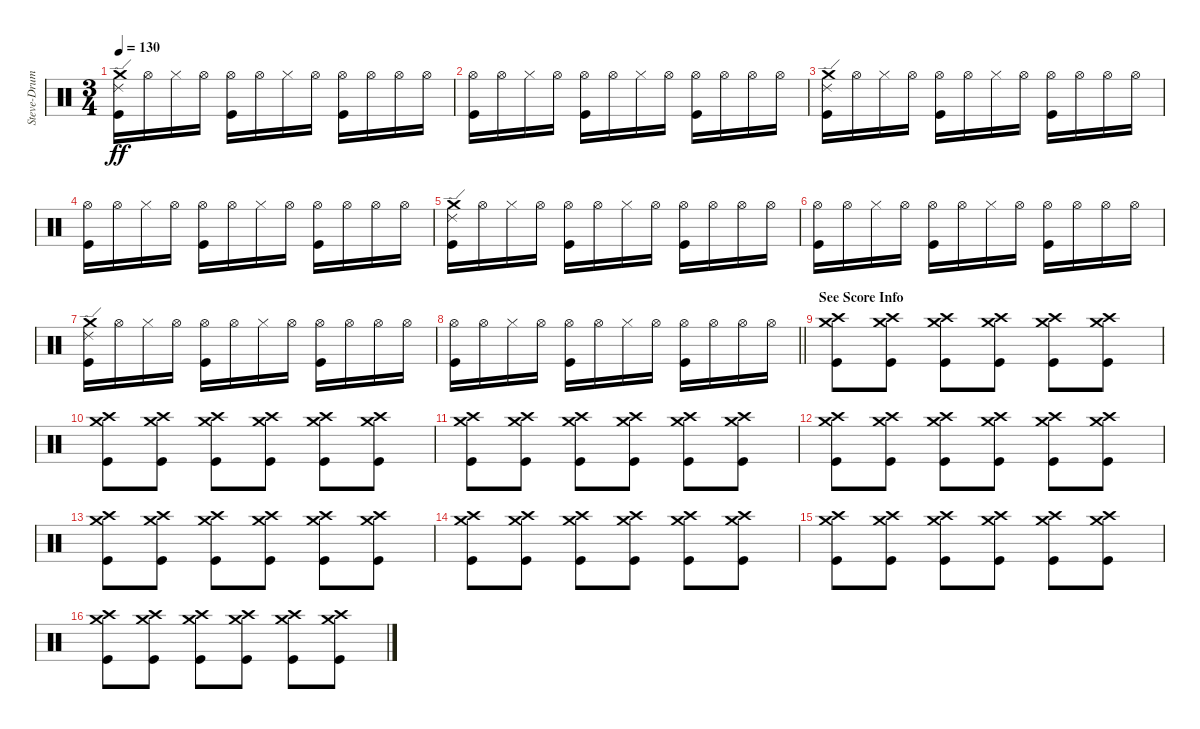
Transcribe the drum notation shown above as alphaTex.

\track ("Steve-Drums" "Steve-Drum") {instrument percussion}
\staff {score}
\articulation defaults
\ts (3 4)
\tempo 130
\clef neutral
\ks c
("Crash medium (hit)" "Ride (edge) 2" "Kick (hit)").16{dy ff} "Hi-Hat (open)".16 "Hi-Hat (closed)".16 "Hi-Hat (open)".16 ("Hi-Hat (open)" "Kick (hit)").16 "Hi-Hat (open)".16 "Hi-Hat (closed)".16 "Hi-Hat (open)".16 ("Hi-Hat (open)" "Kick (hit)").16 "Hi-Hat (open)".16 "Hi-Hat (open)".16 "Hi-Hat (open)".16 |
("Hi-Hat (open)" "Kick (hit)").16 "Hi-Hat (open)".16 "Hi-Hat (closed)".16 "Hi-Hat (open)".16 ("Hi-Hat (open)" "Kick (hit)").16 "Hi-Hat (open)".16 "Hi-Hat (closed)".16 "Hi-Hat (open)".16 ("Hi-Hat (open)" "Kick (hit)").16 "Hi-Hat (open)".16 "Hi-Hat (open)".16 "Hi-Hat (open)".16 |
("Crash medium (hit)" "Ride (edge) 2" "Kick (hit)").16 "Hi-Hat (open)".16 "Hi-Hat (closed)".16 "Hi-Hat (open)".16 ("Hi-Hat (open)" "Kick (hit)").16 "Hi-Hat (open)".16 "Hi-Hat (closed)".16 "Hi-Hat (open)".16 ("Hi-Hat (open)" "Kick (hit)").16 "Hi-Hat (open)".16 "Hi-Hat (open)".16 "Hi-Hat (open)".16 |
("Hi-Hat (open)" "Kick (hit)").16 "Hi-Hat (open)".16 "Hi-Hat (closed)".16 "Hi-Hat (open)".16 ("Hi-Hat (open)" "Kick (hit)").16 "Hi-Hat (open)".16 "Hi-Hat (closed)".16 "Hi-Hat (open)".16 ("Hi-Hat (open)" "Kick (hit)").16 "Hi-Hat (open)".16 "Hi-Hat (open)".16 "Hi-Hat (open)".16 |
("Crash medium (hit)" "Ride (edge) 2" "Kick (hit)").16 "Hi-Hat (open)".16 "Hi-Hat (closed)".16 "Hi-Hat (open)".16 ("Hi-Hat (open)" "Kick (hit)").16 "Hi-Hat (open)".16 "Hi-Hat (closed)".16 "Hi-Hat (open)".16 ("Hi-Hat (open)" "Kick (hit)").16 "Hi-Hat (open)".16 "Hi-Hat (open)".16 "Hi-Hat (open)".16 |
("Hi-Hat (open)" "Kick (hit)").16 "Hi-Hat (open)".16 "Hi-Hat (closed)".16 "Hi-Hat (open)".16 ("Hi-Hat (open)" "Kick (hit)").16 "Hi-Hat (open)".16 "Hi-Hat (closed)".16 "Hi-Hat (open)".16 ("Hi-Hat (open)" "Kick (hit)").16 "Hi-Hat (open)".16 "Hi-Hat (open)".16 "Hi-Hat (open)".16 |
("Crash medium (hit)" "Ride (edge) 2" "Kick (hit)").16 "Hi-Hat (open)".16 "Hi-Hat (closed)".16 "Hi-Hat (open)".16 ("Hi-Hat (open)" "Kick (hit)").16 "Hi-Hat (open)".16 "Hi-Hat (closed)".16 "Hi-Hat (open)".16 ("Hi-Hat (open)" "Kick (hit)").16 "Hi-Hat (open)".16 "Hi-Hat (open)".16 "Hi-Hat (open)".16 |
\barLineRight lightlight
("Hi-Hat (open)" "Kick (hit)").16 "Hi-Hat (open)".16 "Hi-Hat (closed)".16 "Hi-Hat (open)".16 ("Hi-Hat (open)" "Kick (hit)").16 "Hi-Hat (open)".16 "Hi-Hat (closed)".16 "Hi-Hat (open)".16 ("Hi-Hat (open)" "Kick (hit)").16 "Hi-Hat (open)".16 "Hi-Hat (open)".16 "Hi-Hat (open)".16 |
\section ("" "See Score Info")
("Crash medium (hit)" "Crash high (hit)" "Kick (hit)").8 ("Crash medium (hit)" "Crash high (hit)" "Kick (hit)").8 ("Crash medium (hit)" "Crash high (hit)" "Kick (hit)").8 ("Crash medium (hit)" "Crash high (hit)" "Kick (hit)").8 ("Crash medium (hit)" "Crash high (hit)" "Kick (hit)").8 ("Crash medium (hit)" "Crash high (hit)" "Kick (hit)").8 |
("Crash medium (hit)" "Crash high (hit)" "Kick (hit)").8 ("Crash medium (hit)" "Crash high (hit)" "Kick (hit)").8 ("Crash medium (hit)" "Crash high (hit)" "Kick (hit)").8 ("Crash medium (hit)" "Crash high (hit)" "Kick (hit)").8 ("Crash medium (hit)" "Crash high (hit)" "Kick (hit)").8 ("Crash medium (hit)" "Crash high (hit)" "Kick (hit)").8 |
("Crash medium (hit)" "Crash high (hit)" "Kick (hit)").8 ("Crash medium (hit)" "Crash high (hit)" "Kick (hit)").8 ("Crash medium (hit)" "Crash high (hit)" "Kick (hit)").8 ("Crash medium (hit)" "Crash high (hit)" "Kick (hit)").8 ("Crash medium (hit)" "Crash high (hit)" "Kick (hit)").8 ("Crash medium (hit)" "Crash high (hit)" "Kick (hit)").8 |
("Crash medium (hit)" "Crash high (hit)" "Kick (hit)").8 ("Crash medium (hit)" "Crash high (hit)" "Kick (hit)").8 ("Crash medium (hit)" "Crash high (hit)" "Kick (hit)").8 ("Crash medium (hit)" "Crash high (hit)" "Kick (hit)").8 ("Crash medium (hit)" "Crash high (hit)" "Kick (hit)").8 ("Crash medium (hit)" "Crash high (hit)" "Kick (hit)").8 |
("Crash medium (hit)" "Crash high (hit)" "Kick (hit)").8 ("Crash medium (hit)" "Crash high (hit)" "Kick (hit)").8 ("Crash medium (hit)" "Crash high (hit)" "Kick (hit)").8 ("Crash medium (hit)" "Crash high (hit)" "Kick (hit)").8 ("Crash medium (hit)" "Crash high (hit)" "Kick (hit)").8 ("Crash medium (hit)" "Crash high (hit)" "Kick (hit)").8 |
("Crash medium (hit)" "Crash high (hit)" "Kick (hit)").8 ("Crash medium (hit)" "Crash high (hit)" "Kick (hit)").8 ("Crash medium (hit)" "Crash high (hit)" "Kick (hit)").8 ("Crash medium (hit)" "Crash high (hit)" "Kick (hit)").8 ("Crash medium (hit)" "Crash high (hit)" "Kick (hit)").8 ("Crash medium (hit)" "Crash high (hit)" "Kick (hit)").8 |
("Crash medium (hit)" "Crash high (hit)" "Kick (hit)").8 ("Crash medium (hit)" "Crash high (hit)" "Kick (hit)").8 ("Crash medium (hit)" "Crash high (hit)" "Kick (hit)").8 ("Crash medium (hit)" "Crash high (hit)" "Kick (hit)").8 ("Crash medium (hit)" "Crash high (hit)" "Kick (hit)").8 ("Crash medium (hit)" "Crash high (hit)" "Kick (hit)").8 |
("Crash medium (hit)" "Crash high (hit)" "Kick (hit)").8 ("Crash medium (hit)" "Crash high (hit)" "Kick (hit)").8 ("Crash medium (hit)" "Crash high (hit)" "Kick (hit)").8 ("Crash medium (hit)" "Crash high (hit)" "Kick (hit)").8 ("Crash medium (hit)" "Crash high (hit)" "Kick (hit)").8 ("Crash medium (hit)" "Crash high (hit)" "Kick (hit)").8
